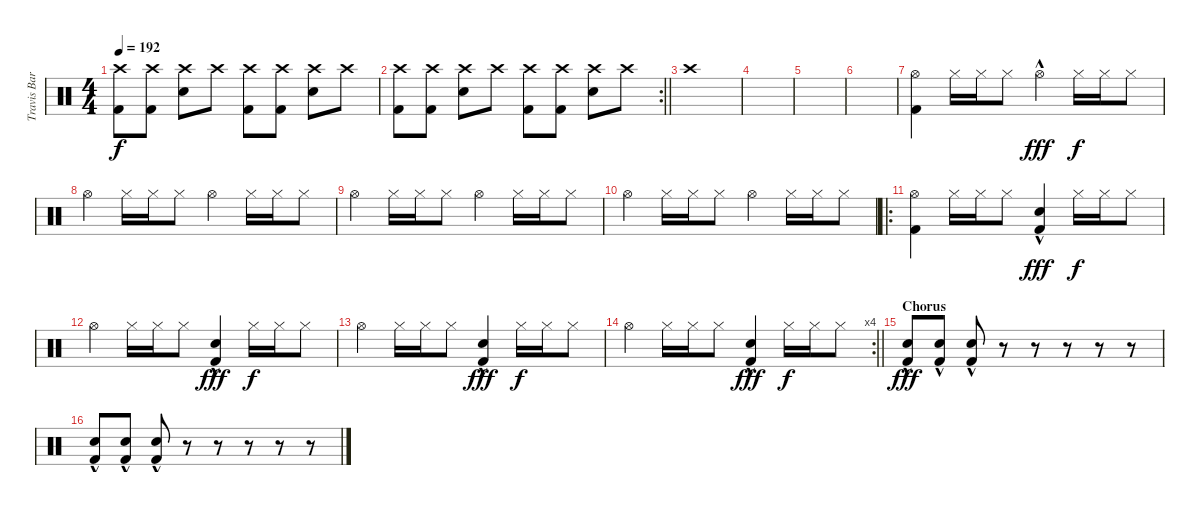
\track ("Travis Barker" "Travis Bar") {instrument percussion}
\staff {score}
\articulation defaults
\ts (4 4)
\tempo 192
\clef neutral
\ks c
("Kick (hit) 2" "Crash high (hit)").8{dy f} ("Kick (hit) 2" "Crash high (hit)").8 ("Electric Snare (hit)" "Crash high (hit)").8 "Crash high (hit)".8 ("Kick (hit) 2" "Crash high (hit)").8 ("Kick (hit) 2" "Crash high (hit)").8 ("Electric Snare (hit)" "Crash high (hit)").8 "Crash high (hit)".8 |
\rc 2
\barLineRight lightlight
("Kick (hit) 2" "Crash high (hit)").8 ("Kick (hit) 2" "Crash high (hit)").8 ("Electric Snare (hit)" "Crash high (hit)").8 "Crash high (hit)".8 ("Kick (hit) 2" "Crash high (hit)").8 ("Kick (hit) 2" "Crash high (hit)").8 ("Electric Snare (hit)" "Crash high (hit)").8 "Crash high (hit)".8 |
"Crash high (hit)".1 |
|
|
|
("Kick (hit) 2" "Hi-Hat (open)").4 "Hi-Hat (closed)".16 "Hi-Hat (closed)".16 "Hi-Hat (closed)".8 "Hi-Hat (open)"{hac}.4{dy fff} "Hi-Hat (closed)".16{dy f} "Hi-Hat (closed)".16 "Hi-Hat (closed)".8 |
"Hi-Hat (open)".4 "Hi-Hat (closed)".16 "Hi-Hat (closed)".16 "Hi-Hat (closed)".8 "Hi-Hat (open)".4 "Hi-Hat (closed)".16 "Hi-Hat (closed)".16 "Hi-Hat (closed)".8 |
"Hi-Hat (open)".4 "Hi-Hat (closed)".16 "Hi-Hat (closed)".16 "Hi-Hat (closed)".8 "Hi-Hat (open)".4 "Hi-Hat (closed)".16 "Hi-Hat (closed)".16 "Hi-Hat (closed)".8 |
"Hi-Hat (open)".4 "Hi-Hat (closed)".16 "Hi-Hat (closed)".16 "Hi-Hat (closed)".8 "Hi-Hat (open)".4 "Hi-Hat (closed)".16 "Hi-Hat (closed)".16 "Hi-Hat (closed)".8 |
\ro
("Kick (hit) 2" "Hi-Hat (open)").4 "Hi-Hat (closed)".16 "Hi-Hat (closed)".16 "Hi-Hat (closed)".8 ("Kick (hit) 2" "Snare (hit) 2"{hac}).4{dy fff} "Hi-Hat (closed)".16{dy f} "Hi-Hat (closed)".16 "Hi-Hat (closed)".8 |
"Hi-Hat (open)".4 "Hi-Hat (closed)".16 "Hi-Hat (closed)".16 "Hi-Hat (closed)".8 ("Kick (hit) 2" "Snare (hit) 2"{hac}).4{dy fff} "Hi-Hat (closed)".16{dy f} "Hi-Hat (closed)".16 "Hi-Hat (closed)".8 |
"Hi-Hat (open)".4 "Hi-Hat (closed)".16 "Hi-Hat (closed)".16 "Hi-Hat (closed)".8 ("Kick (hit) 2" "Snare (hit) 2"{hac}).4{dy fff} "Hi-Hat (closed)".16{dy f} "Hi-Hat (closed)".16 "Hi-Hat (closed)".8 |
\rc 4
\barLineRight lightlight "Hi-Hat (open)".4 "Hi-Hat (closed)".16 "Hi-Hat (closed)".16 "Hi-Hat (closed)".8
("Kick (hit) 2" "Snare (hit) 2"{hac}).4{dy fff} "Hi-Hat (closed)".16{dy f} "Hi-Hat (closed)".16 "Hi-Hat (closed)".8 |
\section ("" "Chorus")
("Kick (hit) 2"{hac} "Snare (hit) 2"{hac}).8{dy fff} ("Kick (hit) 2"{hac} "Snare (hit) 2"{hac}).8 ("Kick (hit) 2"{hac} "Snare (hit) 2"{hac}).8 r.8 r.8 r.8 r.8 r.8 |
("Kick (hit) 2"{hac} "Snare (hit) 2"{hac}).8 ("Kick (hit) 2"{hac} "Snare (hit) 2"{hac}).8 ("Kick (hit) 2"{hac} "Snare (hit) 2"{hac}).8 r.8 r.8 r.8 r.8 r.8
